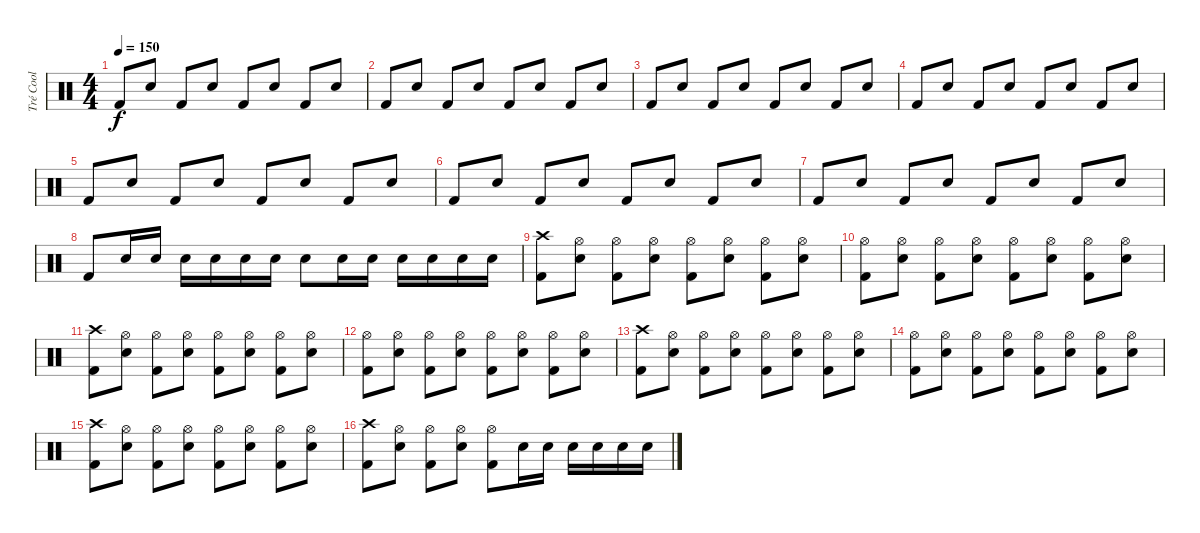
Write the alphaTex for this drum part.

\track ("Tré Cool" "Tré Cool") {instrument percussion}
\staff {score}
\articulation defaults
\ts (4 4)
\tempo 150
\clef neutral
\ks c "Kick (hit) 2".8{dy f} "Electric Snare (hit)".8 "Kick (hit) 2".8 "Electric Snare (hit)".8 "Kick (hit) 2".8 "Electric Snare (hit)".8 "Kick (hit) 2".8 "Electric Snare (hit)".8
|
"Kick (hit) 2".8 "Electric Snare (hit)".8 "Kick (hit) 2".8 "Electric Snare (hit)".8 "Kick (hit) 2".8 "Electric Snare (hit)".8 "Kick (hit) 2".8 "Electric Snare (hit)".8 |
"Kick (hit) 2".8 "Electric Snare (hit)".8 "Kick (hit) 2".8 "Electric Snare (hit)".8 "Kick (hit) 2".8 "Electric Snare (hit)".8 "Kick (hit) 2".8 "Electric Snare (hit)".8 |
"Kick (hit) 2".8 "Electric Snare (hit)".8 "Kick (hit) 2".8 "Electric Snare (hit)".8 "Kick (hit) 2".8 "Electric Snare (hit)".8 "Kick (hit) 2".8 "Electric Snare (hit)".8 |
"Kick (hit) 2".8 "Electric Snare (hit)".8 "Kick (hit) 2".8 "Electric Snare (hit)".8 "Kick (hit) 2".8 "Electric Snare (hit)".8 "Kick (hit) 2".8 "Electric Snare (hit)".8 |
"Kick (hit) 2".8 "Electric Snare (hit)".8 "Kick (hit) 2".8 "Electric Snare (hit)".8 "Kick (hit) 2".8 "Electric Snare (hit)".8 "Kick (hit) 2".8 "Electric Snare (hit)".8 |
"Kick (hit) 2".8 "Electric Snare (hit)".8 "Kick (hit) 2".8 "Electric Snare (hit)".8 "Kick (hit) 2".8 "Electric Snare (hit)".8 "Kick (hit) 2".8 "Electric Snare (hit)".8 |
"Kick (hit) 2".8 "Electric Snare (hit)".16 "Electric Snare (hit)".16 "Electric Snare (hit)".16 "Electric Snare (hit)".16 "Electric Snare (hit)".16 "Electric Snare (hit)".16 "Electric Snare (hit)".8 "Electric Snare (hit)".16 "Electric Snare (hit)".16 "Electric Snare (hit)".16 "Electric Snare (hit)".16 "Electric Snare (hit)".16 "Electric Snare (hit)".16 |
("Crash high (hit)" "Kick (hit) 2").8 ("Hi-Hat (open)" "Electric Snare (hit)").8 ("Hi-Hat (open)" "Kick (hit) 2").8 ("Hi-Hat (open)" "Electric Snare (hit)").8 ("Hi-Hat (open)" "Kick (hit) 2").8 ("Hi-Hat (open)" "Electric Snare (hit)").8 ("Hi-Hat (open)" "Kick (hit) 2").8 ("Hi-Hat (open)" "Electric Snare (hit)").8 |
("Hi-Hat (open)" "Kick (hit) 2").8 ("Hi-Hat (open)" "Electric Snare (hit)").8 ("Hi-Hat (open)" "Kick (hit) 2").8 ("Hi-Hat (open)" "Electric Snare (hit)").8 ("Hi-Hat (open)" "Kick (hit) 2").8 ("Hi-Hat (open)" "Electric Snare (hit)").8 ("Hi-Hat (open)" "Kick (hit) 2").8 ("Hi-Hat (open)" "Electric Snare (hit)").8 |
("Crash high (hit)" "Kick (hit) 2").8 ("Hi-Hat (open)" "Electric Snare (hit)").8 ("Hi-Hat (open)" "Kick (hit) 2").8 ("Hi-Hat (open)" "Electric Snare (hit)").8 ("Hi-Hat (open)" "Kick (hit) 2").8 ("Hi-Hat (open)" "Electric Snare (hit)").8 ("Hi-Hat (open)" "Kick (hit) 2").8 ("Hi-Hat (open)" "Electric Snare (hit)").8 |
("Hi-Hat (open)" "Kick (hit) 2").8 ("Hi-Hat (open)" "Electric Snare (hit)").8 ("Hi-Hat (open)" "Kick (hit) 2").8 ("Hi-Hat (open)" "Electric Snare (hit)").8 ("Hi-Hat (open)" "Kick (hit) 2").8 ("Hi-Hat (open)" "Electric Snare (hit)").8 ("Hi-Hat (open)" "Kick (hit) 2").8 ("Hi-Hat (open)" "Electric Snare (hit)").8 |
("Crash high (hit)" "Kick (hit) 2").8 ("Hi-Hat (open)" "Electric Snare (hit)").8 ("Hi-Hat (open)" "Kick (hit) 2").8 ("Hi-Hat (open)" "Electric Snare (hit)").8 ("Hi-Hat (open)" "Kick (hit) 2").8 ("Hi-Hat (open)" "Electric Snare (hit)").8 ("Hi-Hat (open)" "Kick (hit) 2").8 ("Hi-Hat (open)" "Electric Snare (hit)").8 |
("Hi-Hat (open)" "Kick (hit) 2").8 ("Hi-Hat (open)" "Electric Snare (hit)").8 ("Hi-Hat (open)" "Kick (hit) 2").8 ("Hi-Hat (open)" "Electric Snare (hit)").8 ("Hi-Hat (open)" "Kick (hit) 2").8 ("Hi-Hat (open)" "Electric Snare (hit)").8 ("Hi-Hat (open)" "Kick (hit) 2").8 ("Hi-Hat (open)" "Electric Snare (hit)").8 |
("Crash high (hit)" "Kick (hit) 2").8 ("Hi-Hat (open)" "Electric Snare (hit)").8 ("Hi-Hat (open)" "Kick (hit) 2").8 ("Hi-Hat (open)" "Electric Snare (hit)").8 ("Hi-Hat (open)" "Kick (hit) 2").8 ("Hi-Hat (open)" "Electric Snare (hit)").8 ("Hi-Hat (open)" "Kick (hit) 2").8 ("Hi-Hat (open)" "Electric Snare (hit)").8 |
("Crash high (hit)" "Kick (hit) 2").8 ("Hi-Hat (open)" "Electric Snare (hit)").8 ("Hi-Hat (open)" "Kick (hit) 2").8 ("Hi-Hat (open)" "Electric Snare (hit)").8 ("Hi-Hat (open)" "Kick (hit) 2").8 "Electric Snare (hit)".16 "Electric Snare (hit)".16 "Electric Snare (hit)".16 "Electric Snare (hit)".16 "Electric Snare (hit)".16 "Electric Snare (hit)".16
